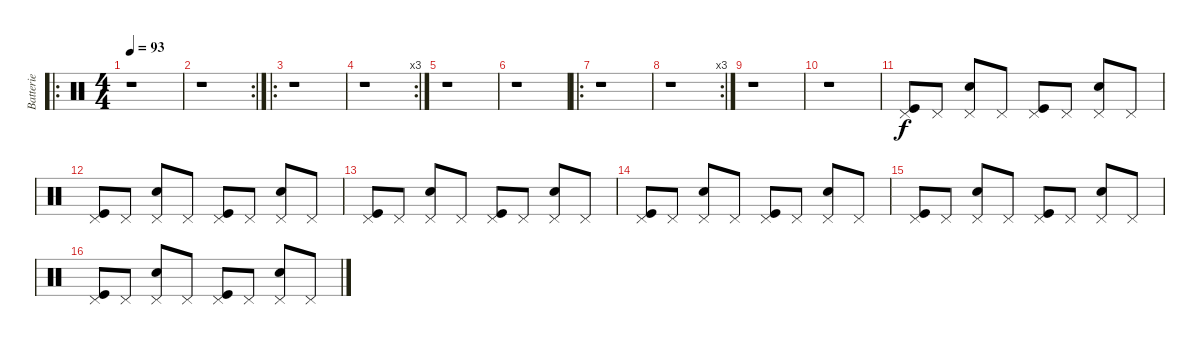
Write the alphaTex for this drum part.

\track ("Batterie" "Batterie") {instrument percussion}
\staff {score}
\articulation defaults
\ro
\ts (4 4)
\tempo 93
\clef neutral
\ks c
r.1{dy f} |
\rc 2
r.1 |
\ro
r.1 |
\rc 3
r.1 |
r.1 |
r.1 |
\ro
r.1 |
\rc 3
r.1 |
r.1 |
r.1 |
("Kick (hit)" "Pedal Hi-Hat (hit)").8 "Pedal Hi-Hat (hit)".8 ("Snare (hit) 2" "Pedal Hi-Hat (hit)").8 "Pedal Hi-Hat (hit)".8 ("Kick (hit)" "Pedal Hi-Hat (hit)").8 "Pedal Hi-Hat (hit)".8 ("Snare (hit) 2" "Pedal Hi-Hat (hit)").8 "Pedal Hi-Hat (hit)".8 |
("Kick (hit)" "Pedal Hi-Hat (hit)").8 "Pedal Hi-Hat (hit)".8 ("Snare (hit) 2" "Pedal Hi-Hat (hit)").8 "Pedal Hi-Hat (hit)".8 ("Kick (hit)" "Pedal Hi-Hat (hit)").8 "Pedal Hi-Hat (hit)".8 ("Snare (hit) 2" "Pedal Hi-Hat (hit)").8 "Pedal Hi-Hat (hit)".8 |
("Kick (hit)" "Pedal Hi-Hat (hit)").8 "Pedal Hi-Hat (hit)".8 ("Snare (hit) 2" "Pedal Hi-Hat (hit)").8 "Pedal Hi-Hat (hit)".8 ("Kick (hit)" "Pedal Hi-Hat (hit)").8 "Pedal Hi-Hat (hit)".8 ("Snare (hit) 2" "Pedal Hi-Hat (hit)").8 "Pedal Hi-Hat (hit)".8 |
("Kick (hit)" "Pedal Hi-Hat (hit)").8 "Pedal Hi-Hat (hit)".8 ("Snare (hit) 2" "Pedal Hi-Hat (hit)").8 "Pedal Hi-Hat (hit)".8 ("Kick (hit)" "Pedal Hi-Hat (hit)").8 "Pedal Hi-Hat (hit)".8 ("Snare (hit) 2" "Pedal Hi-Hat (hit)").8 "Pedal Hi-Hat (hit)".8 |
("Kick (hit)" "Pedal Hi-Hat (hit)").8 "Pedal Hi-Hat (hit)".8 ("Snare (hit) 2" "Pedal Hi-Hat (hit)").8 "Pedal Hi-Hat (hit)".8 ("Kick (hit)" "Pedal Hi-Hat (hit)").8 "Pedal Hi-Hat (hit)".8 ("Snare (hit) 2" "Pedal Hi-Hat (hit)").8 "Pedal Hi-Hat (hit)".8 |
("Kick (hit)" "Pedal Hi-Hat (hit)").8 "Pedal Hi-Hat (hit)".8 ("Snare (hit) 2" "Pedal Hi-Hat (hit)").8 "Pedal Hi-Hat (hit)".8 ("Kick (hit)" "Pedal Hi-Hat (hit)").8 "Pedal Hi-Hat (hit)".8 ("Snare (hit) 2" "Pedal Hi-Hat (hit)").8 "Pedal Hi-Hat (hit)".8
